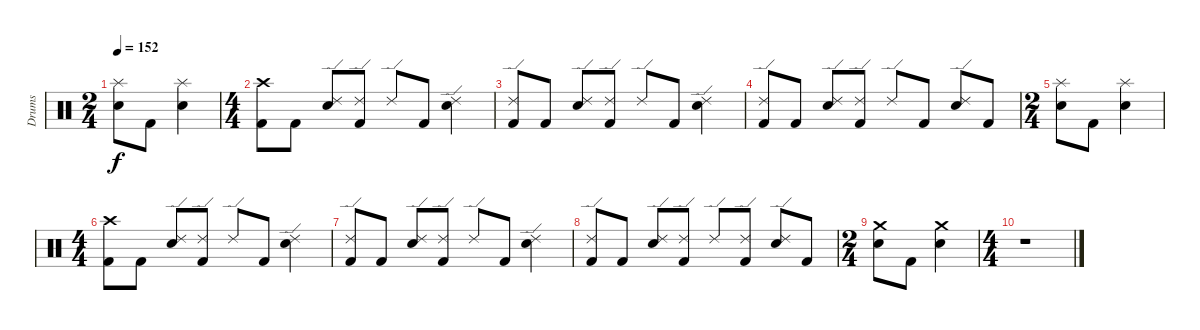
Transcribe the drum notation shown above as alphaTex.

\track ("Drums" "Drums") {instrument percussion}
\staff {score}
\articulation defaults
\ts (2 4)
\tempo 152
\clef neutral
\ks c
("Splash (hit)" "Electric Snare (hit)").8{dy f} "Kick (hit) 2".8 ("Splash (hit)" "Electric Snare (hit)").4 |
\ts (4 4)
("Crash high (hit)" "Kick (hit) 2").8 "Kick (hit) 2".8 ("Ride (edge) 2" "Electric Snare (hit)").8 ("Ride (edge) 2" "Kick (hit) 2").8 "Ride (edge) 2".8 "Kick (hit) 2".8 ("Ride (edge) 2" "Electric Snare (hit)").4 |
("Ride (edge) 2" "Kick (hit) 2").8 "Kick (hit) 2".8 ("Ride (edge) 2" "Electric Snare (hit)").8 ("Ride (edge) 2" "Kick (hit) 2").8 "Ride (edge) 2".8 "Kick (hit) 2".8 ("Ride (edge) 2" "Electric Snare (hit)").4 |
("Ride (edge) 2" "Kick (hit) 2").8 "Kick (hit) 2".8 ("Ride (edge) 2" "Electric Snare (hit)").8 ("Ride (edge) 2" "Kick (hit) 2").8 "Ride (edge) 2".8 "Kick (hit) 2".8 ("Ride (edge) 2" "Electric Snare (hit)").8 "Kick (hit) 2".8 |
\ts (2 4)
("Splash (hit)" "Electric Snare (hit)").8 "Kick (hit) 2".8 ("Splash (hit)" "Electric Snare (hit)").4 |
\ts (4 4)
("Crash high (hit)" "Kick (hit) 2").8 "Kick (hit) 2".8 ("Ride (edge) 2" "Electric Snare (hit)").8 ("Ride (edge) 2" "Kick (hit) 2").8 "Ride (edge) 2".8 "Kick (hit) 2".8 ("Ride (edge) 2" "Electric Snare (hit)").4 |
("Ride (edge) 2" "Kick (hit) 2").8 "Kick (hit) 2".8 ("Ride (edge) 2" "Electric Snare (hit)").8 ("Ride (edge) 2" "Kick (hit) 2").8 "Ride (edge) 2".8 "Kick (hit) 2".8 ("Ride (edge) 2" "Electric Snare (hit)").4 |
("Ride (edge) 2" "Kick (hit) 2").8 "Kick (hit) 2".8 ("Ride (edge) 2" "Electric Snare (hit)").8 ("Ride (edge) 2" "Kick (hit) 2").8 "Ride (edge) 2".8 ("Ride (edge) 2" "Kick (hit) 2").8 ("Ride (edge) 2" "Electric Snare (hit)").8 "Kick (hit) 2".8 |
\ts (2 4)
("Crash medium (hit)" "Electric Snare (hit)").8 "Kick (hit) 2".8 ("Crash medium (hit)" "Electric Snare (hit)").4 |
\ts (4 4)
r.1
